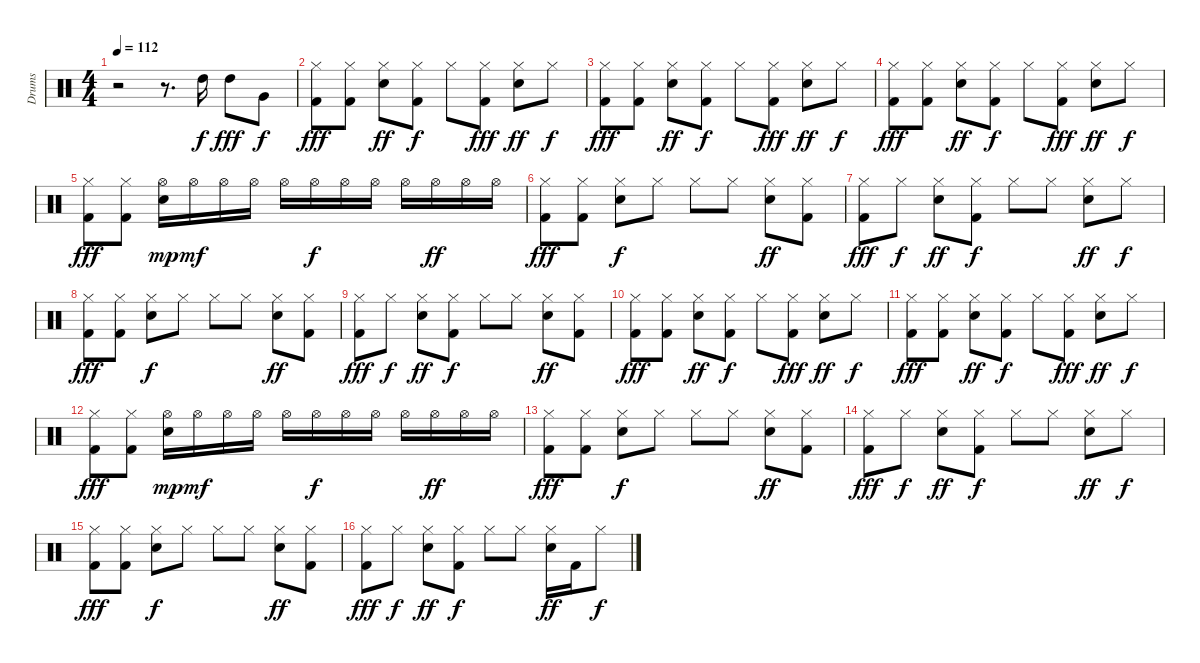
\track ("Drums" "Drums") {instrument percussion}
\staff {score}
\articulation defaults
\ts (4 4)
\tempo 112
\clef neutral
\ks c
r.2{dy f} r.8{d} "High Tom (hit)".16 "High Tom (hit)".8{dy fff} "Very Low Tom (hit)".8{dy f} |
("Hi-Hat (closed)" "Kick (hit) 2").8{dy fff} ("Hi-Hat (closed)" "Kick (hit) 2").8 ("Hi-Hat (closed)" "Snare (hit) 2").8{dy ff} ("Hi-Hat (closed)" "Kick (hit) 2").8{dy f} "Hi-Hat (closed)".8 ("Hi-Hat (closed)" "Kick (hit) 2").8{dy fff} ("Hi-Hat (closed)" "Snare (hit) 2").8{dy ff} "Hi-Hat (closed)".8{dy f} |
("Hi-Hat (closed)" "Kick (hit) 2").8{dy fff} ("Hi-Hat (closed)" "Kick (hit) 2").8 ("Hi-Hat (closed)" "Snare (hit) 2").8{dy ff} ("Hi-Hat (closed)" "Kick (hit) 2").8{dy f} "Hi-Hat (closed)".8 ("Hi-Hat (closed)" "Kick (hit) 2").8{dy fff} ("Hi-Hat (closed)" "Snare (hit) 2").8{dy ff} "Hi-Hat (closed)".8{dy f} |
("Hi-Hat (closed)" "Kick (hit) 2").8{dy fff} ("Hi-Hat (closed)" "Kick (hit) 2").8 ("Hi-Hat (closed)" "Snare (hit) 2").8{dy ff} ("Hi-Hat (closed)" "Kick (hit) 2").8{dy f} "Hi-Hat (closed)".8 ("Hi-Hat (closed)" "Kick (hit) 2").8{dy fff} ("Hi-Hat (closed)" "Snare (hit) 2").8{dy ff} "Hi-Hat (closed)".8{dy f} |
("Hi-Hat (closed)" "Kick (hit) 2").8{dy fff} ("Hi-Hat (closed)" "Kick (hit) 2").8 ("Snare (hit) 2" "Hi-Hat (open)").16{dy mp} "Hi-Hat (open)".16{dy mf} "Hi-Hat (open)".16 "Hi-Hat (open)".16 "Hi-Hat (open)".16 "Hi-Hat (open)".16{dy f} "Hi-Hat (open)".16 "Hi-Hat (open)".16 "Hi-Hat (open)".16 "Hi-Hat (open)".16{dy ff} "Hi-Hat (open)".16 "Hi-Hat (open)".16 |
("Hi-Hat (closed)" "Kick (hit) 2").8{dy fff} ("Hi-Hat (closed)" "Kick (hit) 2").8 ("Hi-Hat (closed)" "Snare (hit) 2").8{dy f} "Hi-Hat (closed)".8 "Hi-Hat (closed)".8 "Hi-Hat (closed)".8 ("Snare (hit) 2" "Hi-Hat (closed)").8{dy ff} ("Kick (hit) 2" "Hi-Hat (closed)").8 |
("Hi-Hat (closed)" "Kick (hit) 2").8{dy fff} "Hi-Hat (closed)".8{dy f} ("Hi-Hat (closed)" "Snare (hit) 2").8{dy ff} ("Kick (hit) 2" "Hi-Hat (closed)").8{dy f} "Hi-Hat (closed)".8 "Hi-Hat (closed)".8 ("Snare (hit) 2" "Hi-Hat (closed)").8{dy ff} "Hi-Hat (closed)".8{dy f} |
("Hi-Hat (closed)" "Kick (hit) 2").8{dy fff} ("Hi-Hat (closed)" "Kick (hit) 2").8 ("Hi-Hat (closed)" "Snare (hit) 2").8{dy f} "Hi-Hat (closed)".8 "Hi-Hat (closed)".8 "Hi-Hat (closed)".8 ("Snare (hit) 2" "Hi-Hat (closed)").8{dy ff} ("Kick (hit) 2" "Hi-Hat (closed)").8 |
("Hi-Hat (closed)" "Kick (hit) 2").8{dy fff} "Hi-Hat (closed)".8{dy f} ("Hi-Hat (closed)" "Snare (hit) 2").8{dy ff} ("Kick (hit) 2" "Hi-Hat (closed)").8{dy f} "Hi-Hat (closed)".8 "Hi-Hat (closed)".8 ("Snare (hit) 2" "Hi-Hat (closed)").8{dy ff} ("Kick (hit) 2" "Hi-Hat (closed)").8 |
("Hi-Hat (closed)" "Kick (hit) 2").8{dy fff} ("Hi-Hat (closed)" "Kick (hit) 2").8 ("Hi-Hat (closed)" "Snare (hit) 2").8{dy ff} ("Hi-Hat (closed)" "Kick (hit) 2").8{dy f} "Hi-Hat (closed)".8 ("Hi-Hat (closed)" "Kick (hit) 2").8{dy fff} ("Hi-Hat (closed)" "Snare (hit) 2").8{dy ff} "Hi-Hat (closed)".8{dy f} |
("Hi-Hat (closed)" "Kick (hit) 2").8{dy fff} ("Hi-Hat (closed)" "Kick (hit) 2").8 ("Hi-Hat (closed)" "Snare (hit) 2").8{dy ff} ("Hi-Hat (closed)" "Kick (hit) 2").8{dy f} "Hi-Hat (closed)".8 ("Hi-Hat (closed)" "Kick (hit) 2").8{dy fff} ("Hi-Hat (closed)" "Snare (hit) 2").8{dy ff} "Hi-Hat (closed)".8{dy f} |
("Hi-Hat (closed)" "Kick (hit) 2").8{dy fff} ("Hi-Hat (closed)" "Kick (hit) 2").8 ("Snare (hit) 2" "Hi-Hat (open)").16{dy mp} "Hi-Hat (open)".16{dy mf} "Hi-Hat (open)".16 "Hi-Hat (open)".16 "Hi-Hat (open)".16 "Hi-Hat (open)".16{dy f} "Hi-Hat (open)".16 "Hi-Hat (open)".16 "Hi-Hat (open)".16 "Hi-Hat (open)".16{dy ff} "Hi-Hat (open)".16 "Hi-Hat (open)".16 |
("Hi-Hat (closed)" "Kick (hit) 2").8{dy fff} ("Hi-Hat (closed)" "Kick (hit) 2").8 ("Hi-Hat (closed)" "Snare (hit) 2").8{dy f} "Hi-Hat (closed)".8 "Hi-Hat (closed)".8 "Hi-Hat (closed)".8 ("Snare (hit) 2" "Hi-Hat (closed)").8{dy ff} ("Kick (hit) 2" "Hi-Hat (closed)").8 |
("Hi-Hat (closed)" "Kick (hit) 2").8{dy fff} "Hi-Hat (closed)".8{dy f} ("Hi-Hat (closed)" "Snare (hit) 2").8{dy ff} ("Kick (hit) 2" "Hi-Hat (closed)").8{dy f} "Hi-Hat (closed)".8 "Hi-Hat (closed)".8 ("Snare (hit) 2" "Hi-Hat (closed)").8{dy ff} "Hi-Hat (closed)".8{dy f} |
("Hi-Hat (closed)" "Kick (hit) 2").8{dy fff} ("Hi-Hat (closed)" "Kick (hit) 2").8 ("Hi-Hat (closed)" "Snare (hit) 2").8{dy f} "Hi-Hat (closed)".8 "Hi-Hat (closed)".8 "Hi-Hat (closed)".8 ("Snare (hit) 2" "Hi-Hat (closed)").8{dy ff} ("Kick (hit) 2" "Hi-Hat (closed)").8 |
("Hi-Hat (closed)" "Kick (hit) 2").8{dy fff} "Hi-Hat (closed)".8{dy f} ("Hi-Hat (closed)" "Snare (hit) 2").8{dy ff} ("Kick (hit) 2" "Hi-Hat (closed)").8{dy f} "Hi-Hat (closed)".8 "Hi-Hat (closed)".8 ("Snare (hit) 2" "Hi-Hat (closed)").16{dy ff} "Kick (hit) 2".16 "Hi-Hat (closed)".8{dy f}
